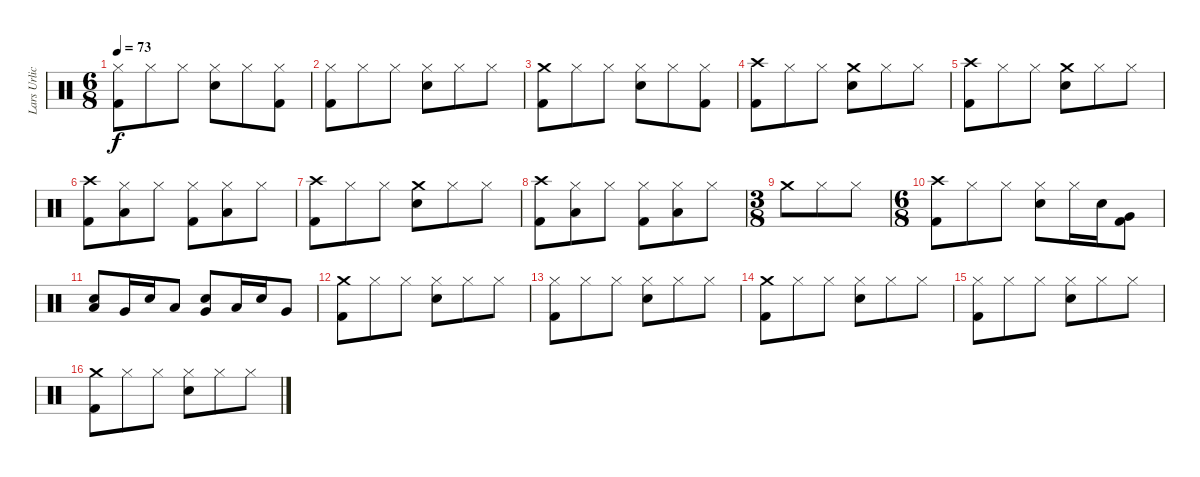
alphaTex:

\track ("Lars Urlich" "Lars Urlic") {instrument percussion}
\staff {score}
\articulation defaults
\ts (6 8)
\tempo 73
\clef neutral
\ks c
("Hi-Hat (closed)" "Kick (hit) 2").8{dy f} "Hi-Hat (closed)".8 "Hi-Hat (closed)".8 ("Hi-Hat (closed)" "Snare (hit) 2").8 "Hi-Hat (closed)".8 ("Hi-Hat (closed)" "Kick (hit) 2").8 |
("Hi-Hat (closed)" "Kick (hit) 2").8 "Hi-Hat (closed)".8 "Hi-Hat (closed)".8 ("Hi-Hat (closed)" "Snare (hit) 2").8 "Hi-Hat (closed)".8 "Hi-Hat (closed)".8 |
("Crash medium (hit)" "Kick (hit) 2").8 "Hi-Hat (closed)".8 "Hi-Hat (closed)".8 ("Hi-Hat (closed)" "Snare (hit) 2").8 "Hi-Hat (closed)".8 ("Hi-Hat (closed)" "Kick (hit) 2").8 |
("Crash high (hit)" "Kick (hit) 2").8 "Hi-Hat (closed)".8 "Hi-Hat (closed)".8 ("Crash medium (hit)" "Snare (hit) 2").8 "Hi-Hat (closed)".8 "Hi-Hat (closed)".8 |
("Crash high (hit)" "Kick (hit) 2").8 "Hi-Hat (closed)".8 "Hi-Hat (closed)".8 ("Crash medium (hit)" "Snare (hit) 2").8 "Hi-Hat (closed)".8 "Hi-Hat (closed)".8 |
("Crash high (hit)" "Kick (hit) 2").8 ("Hi-Hat (closed)" "Low Tom (hit)").8 "Hi-Hat (closed)".8 ("Hi-Hat (closed)" "Kick (hit) 2").8 ("Hi-Hat (closed)" "Low Tom (hit)").8 "Hi-Hat (closed)".8 |
("Crash high (hit)" "Kick (hit) 2").8 "Hi-Hat (closed)".8 "Hi-Hat (closed)".8 ("Crash medium (hit)" "Snare (hit) 2").8 "Hi-Hat (closed)".8 "Hi-Hat (closed)".8 |
("Crash high (hit)" "Kick (hit) 2").8 ("Hi-Hat (closed)" "Low Tom (hit)").8 "Hi-Hat (closed)".8 ("Hi-Hat (closed)" "Kick (hit) 2").8 ("Hi-Hat (closed)" "Low Tom (hit)").8 "Hi-Hat (closed)".8 |
\ts (3 8)
"Crash medium (hit)".8 "Hi-Hat (closed)".8 "Hi-Hat (closed)".8 |
\ts (6 8)
("Crash high (hit)" "Kick (hit) 2").8 "Hi-Hat (closed)".8 "Hi-Hat (closed)".8 ("Hi-Hat (closed)" "Snare (hit) 2").8 "Hi-Hat (closed)".16 "Snare (hit) 2".16 ("Very Low Tom (hit)" "Kick (hit) 2").8 |
("Snare (hit) 2" "Low Floor Tom (hit)").8 "Very Low Tom (hit)".16 "Snare (hit) 2".16 "Low Floor Tom (hit)".8 ("Snare (hit) 2" "Very Low Tom (hit)").8 "Low Floor Tom (hit)".16 "Snare (hit) 2".16 "Very Low Tom (hit)".8 |
("Crash medium (hit)" "Kick (hit) 2").8 "Hi-Hat (closed)".8 "Hi-Hat (closed)".8 ("Hi-Hat (closed)" "Snare (hit) 2").8 "Hi-Hat (closed)".8 "Hi-Hat (closed)".8 |
("Hi-Hat (closed)" "Kick (hit) 2").8 "Hi-Hat (closed)".8 "Hi-Hat (closed)".8 ("Hi-Hat (closed)" "Snare (hit) 2").8 "Hi-Hat (closed)".8 "Hi-Hat (closed)".8 |
("Crash medium (hit)" "Kick (hit) 2").8 "Hi-Hat (closed)".8 "Hi-Hat (closed)".8 ("Hi-Hat (closed)" "Snare (hit) 2").8 "Hi-Hat (closed)".8 "Hi-Hat (closed)".8 |
("Hi-Hat (closed)" "Kick (hit) 2").8 "Hi-Hat (closed)".8 "Hi-Hat (closed)".8 ("Hi-Hat (closed)" "Snare (hit) 2").8 "Hi-Hat (closed)".8 "Hi-Hat (closed)".8 |
("Crash medium (hit)" "Kick (hit) 2").8 "Hi-Hat (closed)".8 "Hi-Hat (closed)".8 ("Hi-Hat (closed)" "Snare (hit) 2").8 "Hi-Hat (closed)".8 "Hi-Hat (closed)".8
